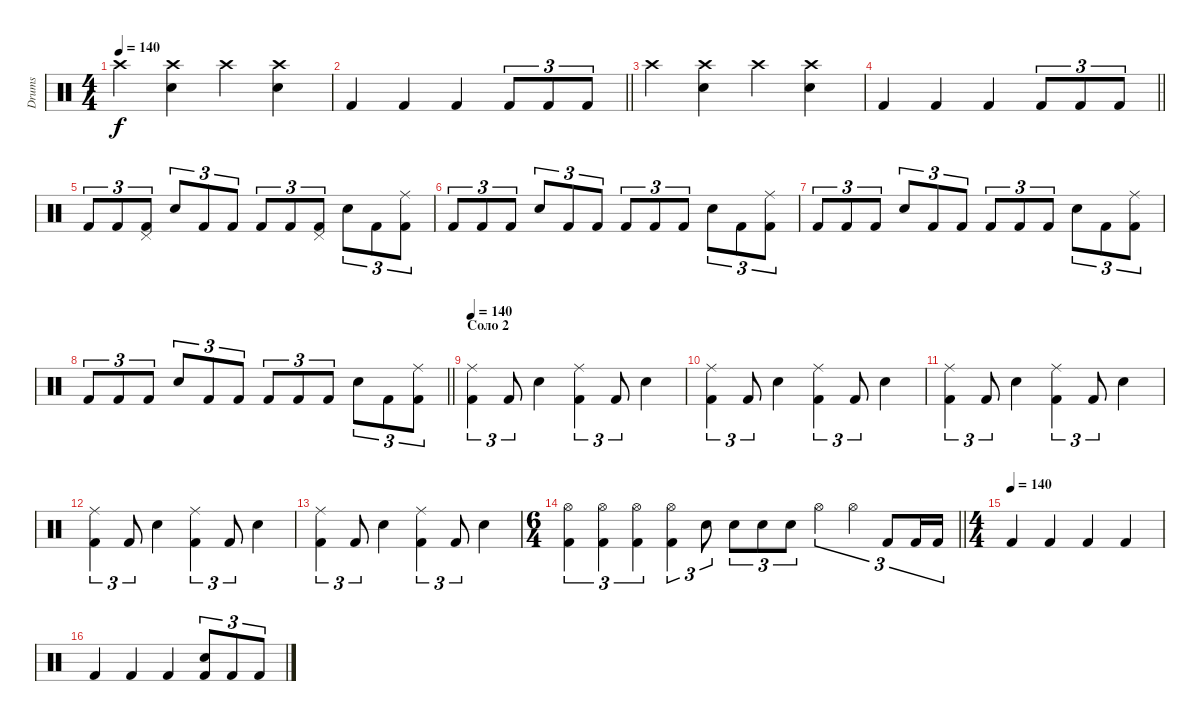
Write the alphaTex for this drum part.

\track ("Drums" "Drums") {instrument percussion}
\staff {score}
\articulation defaults
\ts (4 4)
\tempo 140
\clef neutral
\ks c "Crash high (hit)".4{dy f}
("Electric Snare (hit)" "Crash high (hit)").4 "Crash high (hit)".4 ("Electric Snare (hit)" "Crash high (hit)").4 |
\barLineRight lightlight "Kick (hit) 2".4 "Kick (hit) 2".4 "Kick (hit) 2".4 "Kick (hit) 2".8{tu (3 2)} "Kick (hit) 2".8{tu (3 2)} "Kick (hit) 2".8{tu (3 2)}
|
"Crash high (hit)".4 ("Electric Snare (hit)" "Crash high (hit)").4 "Crash high (hit)".4 ("Electric Snare (hit)" "Crash high (hit)").4 |
\barLineRight lightlight "Kick (hit) 2".4 "Kick (hit) 2".4 "Kick (hit) 2".4 "Kick (hit) 2".8{tu (3 2)} "Kick (hit) 2".8{tu (3 2)} "Kick (hit) 2".8{tu (3 2)}
|
"Kick (hit) 2".8{tu (3 2)} "Kick (hit) 2".8{tu (3 2)} ("Pedal Hi-Hat (hit)" "Kick (hit) 2").8{tu (3 2)} "Electric Snare (hit)".8{tu (3 2)} "Kick (hit) 2".8{tu (3 2)} "Kick (hit) 2".8{tu (3 2)} "Kick (hit) 2".8{tu (3 2)} "Kick (hit) 2".8{tu (3 2)} ("Pedal Hi-Hat (hit)" "Kick (hit) 2").8{tu (3 2)} "Electric Snare (hit)".8{tu (3 2)} "Kick (hit) 2".8{tu (3 2)} ("Ride (middle)" "Kick (hit) 2").8{tu (3 2)} |
"Kick (hit) 2".8{tu (3 2)} "Kick (hit) 2".8{tu (3 2)} "Kick (hit) 2".8{tu (3 2)} "Electric Snare (hit)".8{tu (3 2)} "Kick (hit) 2".8{tu (3 2)} "Kick (hit) 2".8{tu (3 2)} "Kick (hit) 2".8{tu (3 2)} "Kick (hit) 2".8{tu (3 2)} "Kick (hit) 2".8{tu (3 2)} "Electric Snare (hit)".8{tu (3 2)} "Kick (hit) 2".8{tu (3 2)} ("Ride (middle)" "Kick (hit) 2").8{tu (3 2)} |
"Kick (hit) 2".8{tu (3 2)} "Kick (hit) 2".8{tu (3 2)} "Kick (hit) 2".8{tu (3 2)} "Electric Snare (hit)".8{tu (3 2)} "Kick (hit) 2".8{tu (3 2)} "Kick (hit) 2".8{tu (3 2)} "Kick (hit) 2".8{tu (3 2)} "Kick (hit) 2".8{tu (3 2)} "Kick (hit) 2".8{tu (3 2)} "Electric Snare (hit)".8{tu (3 2)} "Kick (hit) 2".8{tu (3 2)} ("Ride (middle)" "Kick (hit) 2").8{tu (3 2)} |
\barLineRight lightlight "Kick (hit) 2".8{tu (3 2)} "Kick (hit) 2".8{tu (3 2)} "Kick (hit) 2".8{tu (3 2)} "Electric Snare (hit)".8{tu (3 2)} "Kick (hit) 2".8{tu (3 2)} "Kick (hit) 2".8{tu (3 2)} "Kick (hit) 2".8{tu (3 2)} "Kick (hit) 2".8{tu (3 2)} "Kick (hit) 2".8{tu (3 2)} "Electric Snare (hit)".8{tu (3 2)} "Kick (hit) 2".8{tu (3 2)}
("Ride (middle)" "Kick (hit) 2").8{tu (3 2)} |
\section ("" "Соло 2")
\tempo 140
("Ride (middle)" "Kick (hit) 2").4{tu (3 2)} "Kick (hit) 2".8{tu (3 2)} "Electric Snare (hit)".4 ("Ride (middle)" "Kick (hit) 2").4{tu (3 2)} "Kick (hit) 2".8{tu (3 2)} "Electric Snare (hit)".4 |
("Ride (middle)" "Kick (hit) 2").4{tu (3 2)} "Kick (hit) 2".8{tu (3 2)} "Electric Snare (hit)".4 ("Ride (middle)" "Kick (hit) 2").4{tu (3 2)} "Kick (hit) 2".8{tu (3 2)} "Electric Snare (hit)".4 |
("Ride (middle)" "Kick (hit) 2").4{tu (3 2)} "Kick (hit) 2".8{tu (3 2)} "Electric Snare (hit)".4 ("Ride (middle)" "Kick (hit) 2").4{tu (3 2)} "Kick (hit) 2".8{tu (3 2)} "Electric Snare (hit)".4 |
("Ride (middle)" "Kick (hit) 2").4{tu (3 2)} "Kick (hit) 2".8{tu (3 2)} "Electric Snare (hit)".4 ("Ride (middle)" "Kick (hit) 2").4{tu (3 2)} "Kick (hit) 2".8{tu (3 2)} "Electric Snare (hit)".4 |
("Ride (middle)" "Kick (hit) 2").4{tu (3 2)} "Kick (hit) 2".8{tu (3 2)} "Electric Snare (hit)".4 ("Ride (middle)" "Kick (hit) 2").4{tu (3 2)} "Kick (hit) 2".8{tu (3 2)} "Electric Snare (hit)".4 |
\ts (6 4)
\barLineRight lightlight
("Hi-Hat (open)" "Kick (hit) 2").4{tu (3 2)} ("Hi-Hat (open)" "Kick (hit) 2").4{tu (3 2)} ("Hi-Hat (open)" "Kick (hit) 2").4{tu (3 2)} ("Hi-Hat (open)" "Kick (hit) 2").4{tu (3 2)} "Electric Snare (hit)".8{tu (3 2)} "Electric Snare (hit)".8{tu (3 2)} "Electric Snare (hit)".8{tu (3 2)} "Electric Snare (hit)".8{tu (3 2)} "Hi-Hat (open)".4{tu (3 2)} "Hi-Hat (open)".4{tu (3 2)} "Kick (hit) 2".8{tu (3 2)} "Kick (hit) 2".16{tu (3 2)} "Kick (hit) 2".16{tu (3 2)} |
\ts (4 4)
\tempo (140)
"Kick (hit) 2".4 "Kick (hit) 2".4 "Kick (hit) 2".4 "Kick (hit) 2".4 |
"Kick (hit) 2".4 "Kick (hit) 2".4 "Kick (hit) 2".4 ("Electric Snare (hit)" "Kick (hit) 2").8{tu (3 2)} "Kick (hit) 2".8{tu (3 2)} "Kick (hit) 2".8{tu (3 2)}
